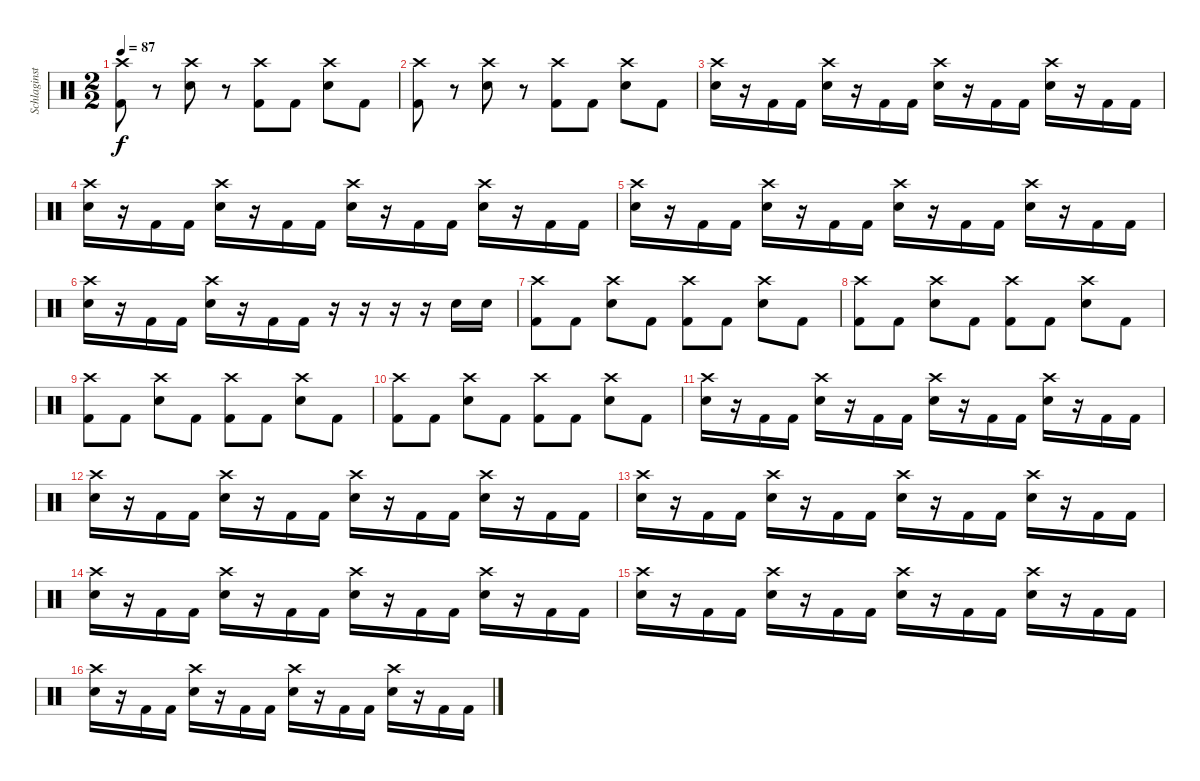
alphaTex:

\track ("Schlaginstrumente - Auswahl" "Schlaginst") {instrument percussion}
\staff {score}
\articulation defaults
\ts (2 2)
\tempo 87
\clef neutral
\ks c
("Crash high (hit)" "Kick (hit) 2").8{dy f} r.8 ("Crash high (hit)" "Electric Snare (hit)").8 r.8 ("Crash high (hit)" "Kick (hit) 2").8 "Kick (hit) 2".8 ("Crash high (hit)" "Electric Snare (hit)").8 "Kick (hit) 2".8 |
("Crash high (hit)" "Kick (hit) 2").8 r.8 ("Crash high (hit)" "Electric Snare (hit)").8 r.8 ("Crash high (hit)" "Kick (hit) 2").8 "Kick (hit) 2".8 ("Crash high (hit)" "Electric Snare (hit)").8 "Kick (hit) 2".8 |
("Crash high (hit)" "Electric Snare (hit)").16 r.16 "Kick (hit) 2".16 "Kick (hit) 2".16 ("Crash high (hit)" "Electric Snare (hit)").16 r.16 "Kick (hit) 2".16 "Kick (hit) 2".16 ("Crash high (hit)" "Electric Snare (hit)").16 r.16 "Kick (hit) 2".16 "Kick (hit) 2".16 ("Crash high (hit)" "Electric Snare (hit)").16 r.16 "Kick (hit) 2".16 "Kick (hit) 2".16 |
("Crash high (hit)" "Electric Snare (hit)").16 r.16 "Kick (hit) 2".16 "Kick (hit) 2".16 ("Crash high (hit)" "Electric Snare (hit)").16 r.16 "Kick (hit) 2".16 "Kick (hit) 2".16 ("Crash high (hit)" "Electric Snare (hit)").16 r.16 "Kick (hit) 2".16 "Kick (hit) 2".16 ("Crash high (hit)" "Electric Snare (hit)").16 r.16 "Kick (hit) 2".16 "Kick (hit) 2".16 |
("Crash high (hit)" "Electric Snare (hit)").16 r.16 "Kick (hit) 2".16 "Kick (hit) 2".16 ("Crash high (hit)" "Electric Snare (hit)").16 r.16 "Kick (hit) 2".16 "Kick (hit) 2".16 ("Crash high (hit)" "Electric Snare (hit)").16 r.16 "Kick (hit) 2".16 "Kick (hit) 2".16 ("Crash high (hit)" "Electric Snare (hit)").16 r.16 "Kick (hit) 2".16 "Kick (hit) 2".16 |
("Crash high (hit)" "Electric Snare (hit)").16 r.16 "Kick (hit) 2".16 "Kick (hit) 2".16 ("Crash high (hit)" "Electric Snare (hit)").16 r.16 "Kick (hit) 2".16 "Kick (hit) 2".16 r.16 r.16 r.16 r.16 "Electric Snare (hit)".16 "Electric Snare (hit)".16 |
("Crash high (hit)" "Kick (hit) 2").8 "Kick (hit) 2".8 ("Crash high (hit)" "Electric Snare (hit)").8 "Kick (hit) 2".8 ("Crash high (hit)" "Kick (hit) 2").8 "Kick (hit) 2".8 ("Crash high (hit)" "Electric Snare (hit)").8 "Kick (hit) 2".8 |
("Crash high (hit)" "Kick (hit) 2").8 "Kick (hit) 2".8 ("Crash high (hit)" "Electric Snare (hit)").8 "Kick (hit) 2".8 ("Crash high (hit)" "Kick (hit) 2").8 "Kick (hit) 2".8 ("Crash high (hit)" "Electric Snare (hit)").8 "Kick (hit) 2".8 |
("Crash high (hit)" "Kick (hit) 2").8 "Kick (hit) 2".8 ("Crash high (hit)" "Electric Snare (hit)").8 "Kick (hit) 2".8 ("Crash high (hit)" "Kick (hit) 2").8 "Kick (hit) 2".8 ("Crash high (hit)" "Electric Snare (hit)").8 "Kick (hit) 2".8 |
("Crash high (hit)" "Kick (hit) 2").8 "Kick (hit) 2".8 ("Crash high (hit)" "Electric Snare (hit)").8 "Kick (hit) 2".8 ("Crash high (hit)" "Kick (hit) 2").8 "Kick (hit) 2".8 ("Crash high (hit)" "Electric Snare (hit)").8 "Kick (hit) 2".8 |
("Crash high (hit)" "Electric Snare (hit)").16 r.16 "Kick (hit) 2".16 "Kick (hit) 2".16 ("Crash high (hit)" "Electric Snare (hit)").16 r.16 "Kick (hit) 2".16 "Kick (hit) 2".16 ("Crash high (hit)" "Electric Snare (hit)").16 r.16 "Kick (hit) 2".16 "Kick (hit) 2".16 ("Crash high (hit)" "Electric Snare (hit)").16 r.16 "Kick (hit) 2".16 "Kick (hit) 2".16 |
("Crash high (hit)" "Electric Snare (hit)").16 r.16 "Kick (hit) 2".16 "Kick (hit) 2".16 ("Crash high (hit)" "Electric Snare (hit)").16 r.16 "Kick (hit) 2".16 "Kick (hit) 2".16 ("Crash high (hit)" "Electric Snare (hit)").16 r.16 "Kick (hit) 2".16 "Kick (hit) 2".16 ("Crash high (hit)" "Electric Snare (hit)").16 r.16 "Kick (hit) 2".16 "Kick (hit) 2".16 |
("Crash high (hit)" "Electric Snare (hit)").16 r.16 "Kick (hit) 2".16 "Kick (hit) 2".16 ("Crash high (hit)" "Electric Snare (hit)").16 r.16 "Kick (hit) 2".16 "Kick (hit) 2".16 ("Crash high (hit)" "Electric Snare (hit)").16 r.16 "Kick (hit) 2".16 "Kick (hit) 2".16 ("Crash high (hit)" "Electric Snare (hit)").16 r.16 "Kick (hit) 2".16 "Kick (hit) 2".16 |
("Crash high (hit)" "Electric Snare (hit)").16 r.16 "Kick (hit) 2".16 "Kick (hit) 2".16 ("Crash high (hit)" "Electric Snare (hit)").16 r.16 "Kick (hit) 2".16 "Kick (hit) 2".16 ("Crash high (hit)" "Electric Snare (hit)").16 r.16 "Kick (hit) 2".16 "Kick (hit) 2".16 ("Crash high (hit)" "Electric Snare (hit)").16 r.16 "Kick (hit) 2".16 "Kick (hit) 2".16 |
("Crash high (hit)" "Electric Snare (hit)").16 r.16 "Kick (hit) 2".16 "Kick (hit) 2".16 ("Crash high (hit)" "Electric Snare (hit)").16 r.16 "Kick (hit) 2".16 "Kick (hit) 2".16 ("Crash high (hit)" "Electric Snare (hit)").16 r.16 "Kick (hit) 2".16 "Kick (hit) 2".16 ("Crash high (hit)" "Electric Snare (hit)").16 r.16 "Kick (hit) 2".16 "Kick (hit) 2".16 |
("Crash high (hit)" "Electric Snare (hit)").16 r.16 "Kick (hit) 2".16 "Kick (hit) 2".16 ("Crash high (hit)" "Electric Snare (hit)").16 r.16 "Kick (hit) 2".16 "Kick (hit) 2".16 ("Crash high (hit)" "Electric Snare (hit)").16 r.16 "Kick (hit) 2".16 "Kick (hit) 2".16 ("Crash high (hit)" "Electric Snare (hit)").16 r.16 "Kick (hit) 2".16 "Kick (hit) 2".16
